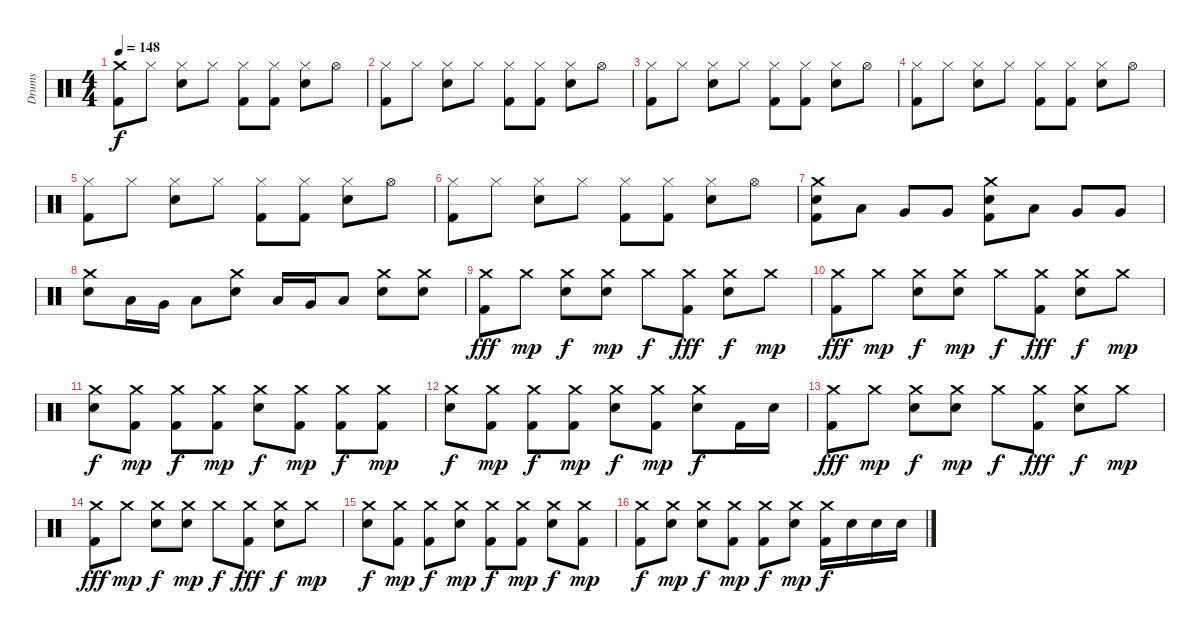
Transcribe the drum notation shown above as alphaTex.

\track ("Drums" "Drums") {instrument percussion}
\staff {score}
\articulation defaults
\ts (4 4)
\tempo 148
\clef neutral
\ks c
("Crash medium (hit)" "Kick (hit) 2").8{dy f} "Hi-Hat (closed)".8 ("Hi-Hat (closed)" "Snare (hit) 2").8 "Hi-Hat (closed)".8 ("Hi-Hat (closed)" "Kick (hit) 2").8 ("Hi-Hat (closed)" "Kick (hit) 2").8 ("Hi-Hat (closed)" "Snare (hit) 2").8 "Hi-Hat (open)".8 |
("Hi-Hat (closed)" "Kick (hit) 2").8 "Hi-Hat (closed)".8 ("Hi-Hat (closed)" "Snare (hit) 2").8 "Hi-Hat (closed)".8 ("Hi-Hat (closed)" "Kick (hit) 2").8 ("Hi-Hat (closed)" "Kick (hit) 2").8 ("Hi-Hat (closed)" "Snare (hit) 2").8 "Hi-Hat (open)".8 |
("Hi-Hat (closed)" "Kick (hit) 2").8 "Hi-Hat (closed)".8 ("Hi-Hat (closed)" "Snare (hit) 2").8 "Hi-Hat (closed)".8 ("Hi-Hat (closed)" "Kick (hit) 2").8 ("Hi-Hat (closed)" "Kick (hit) 2").8 ("Hi-Hat (closed)" "Snare (hit) 2").8 "Hi-Hat (open)".8 |
("Hi-Hat (closed)" "Kick (hit) 2").8 "Hi-Hat (closed)".8 ("Hi-Hat (closed)" "Snare (hit) 2").8 "Hi-Hat (closed)".8 ("Hi-Hat (closed)" "Kick (hit) 2").8 ("Hi-Hat (closed)" "Kick (hit) 2").8 ("Hi-Hat (closed)" "Snare (hit) 2").8 "Hi-Hat (open)".8 |
("Hi-Hat (closed)" "Kick (hit) 2").8 "Hi-Hat (closed)".8 ("Hi-Hat (closed)" "Snare (hit) 2").8 "Hi-Hat (closed)".8 ("Hi-Hat (closed)" "Kick (hit) 2").8 ("Hi-Hat (closed)" "Kick (hit) 2").8 ("Hi-Hat (closed)" "Snare (hit) 2").8 "Hi-Hat (open)".8 |
("Hi-Hat (closed)" "Kick (hit) 2").8 "Hi-Hat (closed)".8 ("Hi-Hat (closed)" "Snare (hit) 2").8 "Hi-Hat (closed)".8 ("Hi-Hat (closed)" "Kick (hit) 2").8 ("Hi-Hat (closed)" "Kick (hit) 2").8 ("Hi-Hat (closed)" "Snare (hit) 2").8 "Hi-Hat (open)".8 |
("Crash medium (hit)" "Snare (hit) 2" "Kick (hit) 2").8 "Low Tom (hit)".8 "Very Low Tom (hit)".8 "Very Low Tom (hit)".8 ("Crash medium (hit)" "Snare (hit) 2" "Kick (hit) 2").8 "Low Tom (hit)".8 "Very Low Tom (hit)".8 "Very Low Tom (hit)".8 |
("Crash medium (hit)" "Snare (hit) 2").8 "Low Tom (hit)".16 "Very Low Tom (hit)".16 "Low Floor Tom (hit)".8 ("Crash medium (hit)" "Snare (hit) 2").8 "Low Tom (hit)".16 "Very Low Tom (hit)".16 "Low Floor Tom (hit)".8 ("Crash medium (hit)" "Snare (hit) 2").8 ("Crash medium (hit)" "Snare (hit) 2").8 |
("Crash medium (hit)" "Kick (hit) 2").8{dy fff} "Crash medium (hit)".8{dy mp} ("Crash medium (hit)" "Snare (hit) 2").8{dy f} ("Crash medium (hit)" "Snare (hit) 2").8{dy mp} "Crash medium (hit)".8{dy f} ("Crash medium (hit)" "Kick (hit) 2").8{dy fff} ("Crash medium (hit)" "Snare (hit) 2").8{dy f} "Crash medium (hit)".8{dy mp} |
("Crash medium (hit)" "Kick (hit) 2").8{dy fff} "Crash medium (hit)".8{dy mp} ("Crash medium (hit)" "Snare (hit) 2").8{dy f} ("Crash medium (hit)" "Snare (hit) 2").8{dy mp} "Crash medium (hit)".8{dy f} ("Crash medium (hit)" "Kick (hit) 2").8{dy fff} ("Crash medium (hit)" "Snare (hit) 2").8{dy f} "Crash medium (hit)".8{dy mp} |
("Crash medium (hit)" "Snare (hit) 2").8{dy f} ("Crash medium (hit)" "Kick (hit) 2").8{dy mp} ("Crash medium (hit)" "Kick (hit) 2").8{dy f} ("Crash medium (hit)" "Kick (hit) 2").8{dy mp} ("Crash medium (hit)" "Snare (hit) 2").8{dy f} ("Crash medium (hit)" "Kick (hit) 2").8{dy mp} ("Crash medium (hit)" "Kick (hit) 2").8{dy f} ("Crash medium (hit)" "Kick (hit) 2").8{dy mp} |
("Crash medium (hit)" "Snare (hit) 2").8{dy f} ("Crash medium (hit)" "Kick (hit) 2").8{dy mp} ("Crash medium (hit)" "Kick (hit) 2").8{dy f} ("Crash medium (hit)" "Kick (hit) 2").8{dy mp} ("Crash medium (hit)" "Snare (hit) 2").8{dy f} ("Crash medium (hit)" "Kick (hit) 2").8{dy mp} ("Crash medium (hit)" "Snare (hit) 2").8{dy f} "Kick (hit) 2".16 "Snare (hit) 2".16 |
("Crash medium (hit)" "Kick (hit) 2").8{dy fff} "Crash medium (hit)".8{dy mp} ("Crash medium (hit)" "Snare (hit) 2").8{dy f} ("Crash medium (hit)" "Snare (hit) 2").8{dy mp} "Crash medium (hit)".8{dy f} ("Crash medium (hit)" "Kick (hit) 2").8{dy fff} ("Crash medium (hit)" "Snare (hit) 2").8{dy f} "Crash medium (hit)".8{dy mp} |
("Crash medium (hit)" "Kick (hit) 2").8{dy fff} "Crash medium (hit)".8{dy mp} ("Crash medium (hit)" "Snare (hit) 2").8{dy f} ("Crash medium (hit)" "Snare (hit) 2").8{dy mp} "Crash medium (hit)".8{dy f} ("Crash medium (hit)" "Kick (hit) 2").8{dy fff} ("Crash medium (hit)" "Snare (hit) 2").8{dy f} "Crash medium (hit)".8{dy mp} |
("Crash medium (hit)" "Snare (hit) 2").8{dy f} ("Crash medium (hit)" "Kick (hit) 2").8{dy mp} ("Crash medium (hit)" "Kick (hit) 2").8{dy f} ("Crash medium (hit)" "Snare (hit) 2").8{dy mp} ("Crash medium (hit)" "Kick (hit) 2").8{dy f} ("Crash medium (hit)" "Kick (hit) 2").8{dy mp} ("Crash medium (hit)" "Snare (hit) 2").8{dy f} ("Crash medium (hit)" "Kick (hit) 2").8{dy mp} |
("Crash medium (hit)" "Kick (hit) 2").8{dy f} ("Crash medium (hit)" "Snare (hit) 2").8{dy mp} ("Crash medium (hit)" "Snare (hit) 2").8{dy f} ("Crash medium (hit)" "Kick (hit) 2").8{dy mp} ("Crash medium (hit)" "Kick (hit) 2").8{dy f} ("Crash medium (hit)" "Snare (hit) 2").8{dy mp} ("Crash medium (hit)" "Kick (hit) 2").16{dy f} "Snare (hit) 2".16 "Snare (hit) 2".16 "Snare (hit) 2".16
